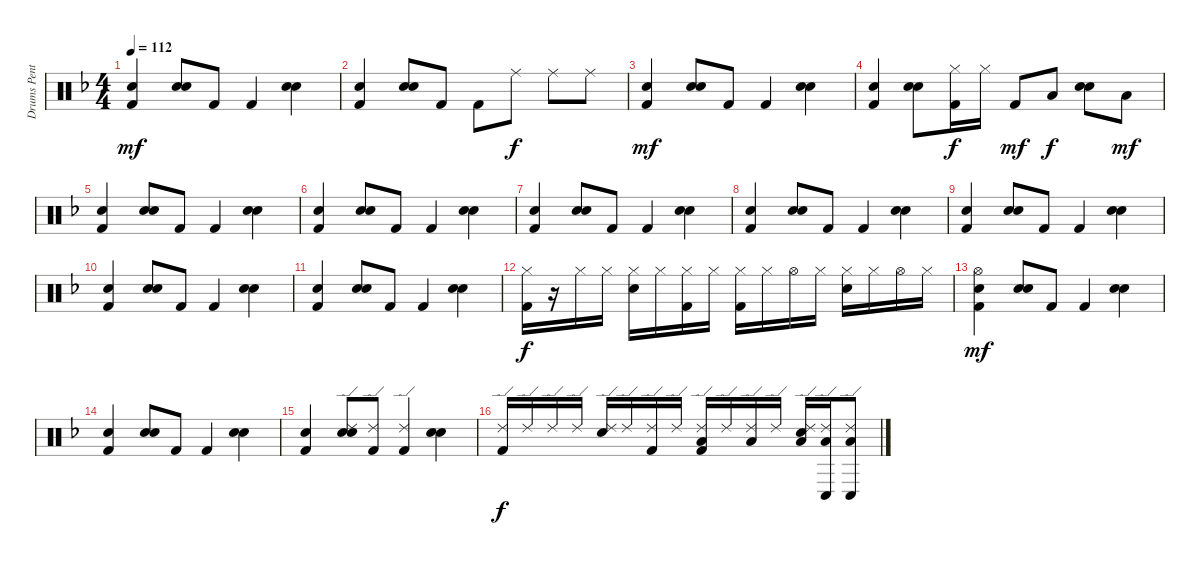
\track ("Drums Pentti Glan" "Drums Pent") {instrument percussion}
\staff {score}
\articulation defaults
\ts (4 4)
\tempo 112
\clef neutral
\ks f
("Hand Clap (hit)" "Kick (hit) 2").4{dy mf} ("Electric Snare (hit)" "Snare (hit) 2").8 "Kick (hit) 2".8 "Kick (hit) 2".4 ("Electric Snare (hit)" "Snare (hit) 2").4 |
("Hand Clap (hit)" "Kick (hit) 2").4 ("Electric Snare (hit)" "Snare (hit) 2").8 "Kick (hit) 2".8 "Kick (hit) 2".8 "Ride (middle)".8{dy f} "Ride (middle)".8 "Ride (middle)".8 |
("Hand Clap (hit)" "Kick (hit) 2").4{dy mf} ("Electric Snare (hit)" "Snare (hit) 2").8 "Kick (hit) 2".8 "Kick (hit) 2".4 ("Electric Snare (hit)" "Snare (hit) 2").4 |
("Hand Clap (hit)" "Kick (hit) 2").4 ("Electric Snare (hit)" "Snare (hit) 2").8 ("Hi-Hat (closed)" "Kick (hit) 2").16{dy f} "Hi-Hat (closed)".16 "Kick (hit) 2".8{dy mf} "Low Tom (hit)".8{dy f} ("Electric Snare (hit)" "Snare (hit) 2").8 "Low Tom (hit)".8{dy mf} |
("Hand Clap (hit)" "Kick (hit) 2").4 ("Electric Snare (hit)" "Snare (hit) 2").8 "Kick (hit) 2".8 "Kick (hit) 2".4 ("Electric Snare (hit)" "Snare (hit) 2").4 |
("Hand Clap (hit)" "Kick (hit) 2").4 ("Electric Snare (hit)" "Snare (hit) 2").8 "Kick (hit) 2".8 "Kick (hit) 2".4 ("Electric Snare (hit)" "Snare (hit) 2").4 |
("Hand Clap (hit)" "Kick (hit) 2").4 ("Electric Snare (hit)" "Snare (hit) 2").8 "Kick (hit) 2".8 "Kick (hit) 2".4 ("Electric Snare (hit)" "Snare (hit) 2").4 |
("Hand Clap (hit)" "Kick (hit) 2").4 ("Electric Snare (hit)" "Snare (hit) 2").8 "Kick (hit) 2".8 "Kick (hit) 2".4 ("Electric Snare (hit)" "Snare (hit) 2").4 |
("Hand Clap (hit)" "Kick (hit) 2").4 ("Electric Snare (hit)" "Snare (hit) 2").8 "Kick (hit) 2".8 "Kick (hit) 2".4 ("Electric Snare (hit)" "Snare (hit) 2").4 |
("Hand Clap (hit)" "Kick (hit) 2").4 ("Electric Snare (hit)" "Snare (hit) 2").8 "Kick (hit) 2".8 "Kick (hit) 2".4 ("Electric Snare (hit)" "Snare (hit) 2").4 |
("Hand Clap (hit)" "Kick (hit) 2").4 ("Electric Snare (hit)" "Snare (hit) 2").8 "Kick (hit) 2".8 "Kick (hit) 2".4 ("Electric Snare (hit)" "Snare (hit) 2").4 |
("Hi-Hat (closed)" "Kick (hit) 2").16{dy f} r.16 "Hi-Hat (closed)".16 "Hi-Hat (closed)".16 ("Hi-Hat (closed)" "Electric Snare (hit)").16 "Hi-Hat (closed)".16 ("Hi-Hat (closed)" "Kick (hit) 2").16 "Hi-Hat (closed)".16 ("Hi-Hat (closed)" "Kick (hit) 2").16 "Hi-Hat (closed)".16 "Hi-Hat (open)".16 "Hi-Hat (closed)".16 ("Hi-Hat (closed)" "Electric Snare (hit)").16 "Hi-Hat (closed)".16 "Hi-Hat (open)".16 "Hi-Hat (closed)".16 |
("Hi-Hat (open)" "Hand Clap (hit)" "Kick (hit) 2").4{dy mf} ("Electric Snare (hit)" "Snare (hit) 2").8 "Kick (hit) 2".8 "Kick (hit) 2".4 ("Electric Snare (hit)" "Snare (hit) 2").4 |
("Hand Clap (hit)" "Kick (hit) 2").4 ("Electric Snare (hit)" "Snare (hit) 2").8 "Kick (hit) 2".8 "Kick (hit) 2".4 ("Electric Snare (hit)" "Snare (hit) 2").4 |
("Hand Clap (hit)" "Kick (hit) 2").4 ("Ride (edge) 2" "Electric Snare (hit)" "Snare (hit) 2").8 ("Ride (edge) 2" "Kick (hit) 2").8 ("Ride (edge) 2" "Kick (hit) 2").4 ("Electric Snare (hit)" "Snare (hit) 2").4 |
("Ride (edge) 2" "Kick (hit) 2").16{dy f} "Ride (edge) 2".16 "Ride (edge) 2".16 "Ride (edge) 2".16 ("Ride (edge) 2" "Electric Snare (hit)").16 "Ride (edge) 2".16 ("Ride (edge) 2" "Kick (hit) 2").16 "Ride (edge) 2".16 ("Ride (edge) 2" "Low Tom (hit)" "Kick (hit) 2").16 "Ride (edge) 2".16 ("Ride (edge) 2" "Low Tom (hit)").16 "Ride (edge) 2".16 ("Ride (edge) 2" "Electric Snare (hit)" "Low Tom (hit)").16 ("Ride (edge) 2" "Conga low (hit)" "Low Tom (hit)").16 ("Ride (edge) 2" "Conga low (hit)" "Low Tom (hit)").8
